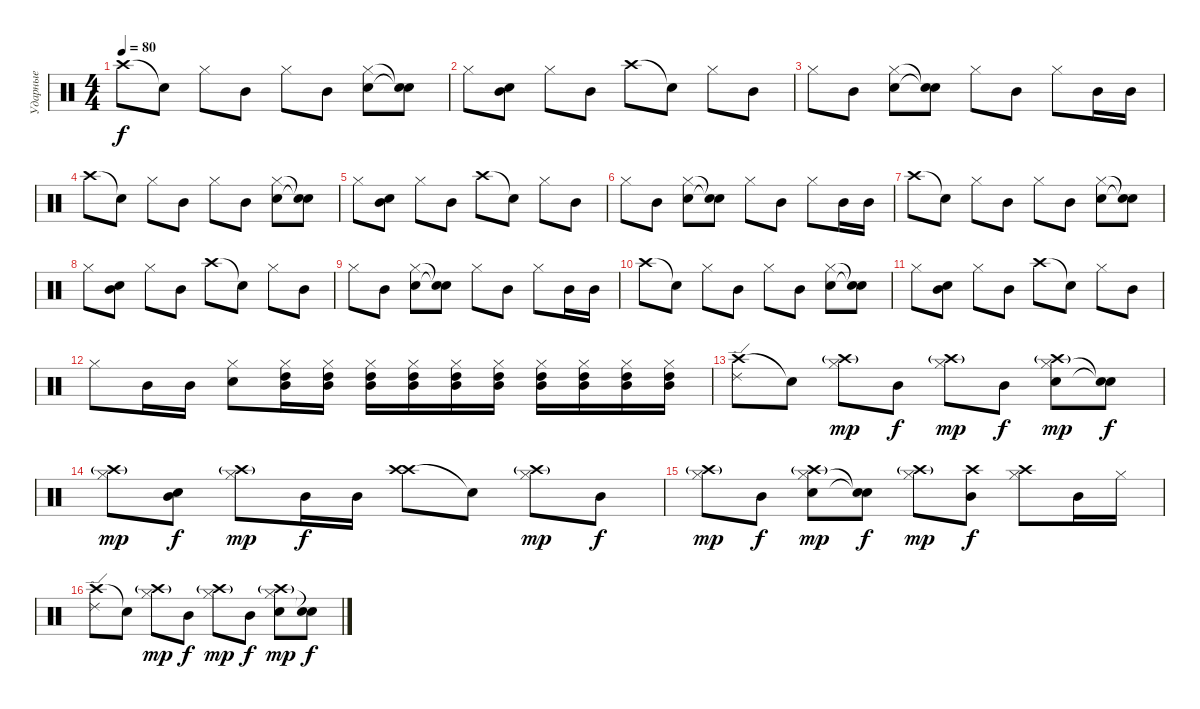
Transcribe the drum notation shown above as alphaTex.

\track ("Ударные" "Ударные") {instrument percussion}
\staff {score}
\articulation defaults
\ts (4 4)
\tempo 80
\clef neutral
\ks c "Crash high (hit)".8{dy f} "Snare (hit)"{t}.8 "Hi-Hat (closed)".8 "Mid Tom (hit)".8 "Hi-Hat (closed)".8 "Mid Tom (hit)".8
("Electric Snare (hit)" "Hi-Hat (closed)").8 ("Snare (hit)"{t} "Snare (hit)"{t}).8 |
"Hi-Hat (closed)".8 ("Mid Tom (hit)" "Electric Snare (hit)").8 "Hi-Hat (closed)".8 "Mid Tom (hit)".8 "Crash high (hit)".8 "Snare (hit)"{t}.8 "Hi-Hat (closed)".8 "Mid Tom (hit)".8 |
"Hi-Hat (closed)".8 "Mid Tom (hit)".8 ("Electric Snare (hit)" "Hi-Hat (closed)").8 ("Snare (hit)"{t} "Snare (hit)"{t}).8 "Hi-Hat (closed)".8 "Mid Tom (hit)".8 "Hi-Hat (closed)".8 "Mid Tom (hit)".16 "Mid Tom (hit)".16 |
"Crash high (hit)".8 "Snare (hit)"{t}.8 "Hi-Hat (closed)".8 "Mid Tom (hit)".8 "Hi-Hat (closed)".8 "Mid Tom (hit)".8 ("Electric Snare (hit)" "Hi-Hat (closed)").8 ("Snare (hit)"{t} "Snare (hit)"{t}).8 |
"Hi-Hat (closed)".8 ("Mid Tom (hit)" "Electric Snare (hit)").8 "Hi-Hat (closed)".8 "Mid Tom (hit)".8 "Crash high (hit)".8 "Snare (hit)"{t}.8 "Hi-Hat (closed)".8 "Mid Tom (hit)".8 |
"Hi-Hat (closed)".8 "Mid Tom (hit)".8 ("Electric Snare (hit)" "Hi-Hat (closed)").8 ("Snare (hit)"{t} "Snare (hit)"{t}).8 "Hi-Hat (closed)".8 "Mid Tom (hit)".8 "Hi-Hat (closed)".8 "Mid Tom (hit)".16 "Mid Tom (hit)".16 |
"Crash high (hit)".8 "Snare (hit)"{t}.8 "Hi-Hat (closed)".8 "Mid Tom (hit)".8 "Hi-Hat (closed)".8 "Mid Tom (hit)".8 ("Electric Snare (hit)" "Hi-Hat (closed)").8 ("Snare (hit)"{t} "Snare (hit)"{t}).8 |
"Hi-Hat (closed)".8 ("Mid Tom (hit)" "Electric Snare (hit)").8 "Hi-Hat (closed)".8 "Mid Tom (hit)".8 "Crash high (hit)".8 "Snare (hit)"{t}.8 "Hi-Hat (closed)".8 "Mid Tom (hit)".8 |
"Hi-Hat (closed)".8 "Mid Tom (hit)".8 ("Electric Snare (hit)" "Hi-Hat (closed)").8 ("Snare (hit)"{t} "Snare (hit)"{t}).8 "Hi-Hat (closed)".8 "Mid Tom (hit)".8 "Hi-Hat (closed)".8 "Mid Tom (hit)".16 "Mid Tom (hit)".16 |
"Crash high (hit)".8 "Snare (hit)"{t}.8 "Hi-Hat (closed)".8 "Mid Tom (hit)".8 "Hi-Hat (closed)".8 "Mid Tom (hit)".8 ("Electric Snare (hit)" "Hi-Hat (closed)").8 ("Snare (hit)"{t} "Snare (hit)"{t}).8 |
"Hi-Hat (closed)".8 ("Mid Tom (hit)" "Electric Snare (hit)").8 "Hi-Hat (closed)".8 "Mid Tom (hit)".8 "Crash high (hit)".8 "Snare (hit)"{t}.8 "Hi-Hat (closed)".8 "Mid Tom (hit)".8 |
"Hi-Hat (closed)".8 "Mid Tom (hit)".16 "Mid Tom (hit)".16 ("Electric Snare (hit)" "Hi-Hat (closed)").8 ("High Tom (hit)" "Mid Tom (hit)" "Hi-Hat (closed)").16 ("High Tom (hit)" "Mid Tom (hit)" "Hi-Hat (closed)").16 ("High Tom (hit)" "Mid Tom (hit)" "Hi-Hat (closed)").16 ("High Tom (hit)" "Mid Tom (hit)" "Hi-Hat (closed)").16 ("High Tom (hit)" "Mid Tom (hit)" "Hi-Hat (closed)").16 ("High Tom (hit)" "Mid Tom (hit)" "Hi-Hat (closed)").16 ("High Tom (hit)" "Mid Tom (hit)" "Hi-Hat (closed)").16 ("High Tom (hit)" "Mid Tom (hit)" "Hi-Hat (closed)").16 ("High Tom (hit)" "Mid Tom (hit)" "Hi-Hat (closed)").16 ("High Tom (hit)" "Mid Tom (hit)" "Hi-Hat (closed)").16 |
("Crash high (hit)" "Ride (edge) 2").8 "Snare (hit)"{t}.8 ("Hi-Hat (closed)" "Crash high (hit)"{g}).8{dy mp} "Mid Tom (hit)".8{dy f} ("Hi-Hat (closed)" "Crash high (hit)"{g}).8{dy mp} "Mid Tom (hit)".8{dy f} ("Electric Snare (hit)" "Hi-Hat (closed)" "Crash high (hit)"{g}).8{dy mp} ("Snare (hit)"{t} "Snare (hit)"{t}).8{dy f} |
("Hi-Hat (closed)" "Crash high (hit)"{g}).8{dy mp} ("Mid Tom (hit)" "Electric Snare (hit)").8{dy f} ("Hi-Hat (closed)" "Crash high (hit)"{g}).8{dy mp} "Mid Tom (hit)".16{dy f} "Mid Tom (hit)".16 ("Crash high (hit)" "Crash high (hit)").8 "Snare (hit)"{t}.8 ("Hi-Hat (closed)" "Crash high (hit)"{g}).8{dy mp} "Mid Tom (hit)".8{dy f} |
("Hi-Hat (closed)" "Crash high (hit)"{g}).8{dy mp} "Mid Tom (hit)".8{dy f} ("Electric Snare (hit)" "Hi-Hat (closed)" "Crash high (hit)"{g}).8{dy mp} ("Snare (hit)"{t} "Snare (hit)"{t}).8{dy f} ("Hi-Hat (closed)" "Crash high (hit)"{g}).8{dy mp} ("Mid Tom (hit)" "Crash high (hit)").8{dy f} ("Hi-Hat (closed)" "Crash high (hit)").8 "Mid Tom (hit)".16 "Hi-Hat (closed)".16 |
("Crash high (hit)" "Ride (edge) 2").8 "Snare (hit)"{t}.8 ("Hi-Hat (closed)" "Crash high (hit)"{g}).8{dy mp} "Mid Tom (hit)".8{dy f} ("Hi-Hat (closed)" "Crash high (hit)"{g}).8{dy mp} "Mid Tom (hit)".8{dy f} ("Electric Snare (hit)" "Hi-Hat (closed)" "Crash high (hit)"{g}).8{dy mp} ("Snare (hit)"{t} "Snare (hit)"{t}).8{dy f}
